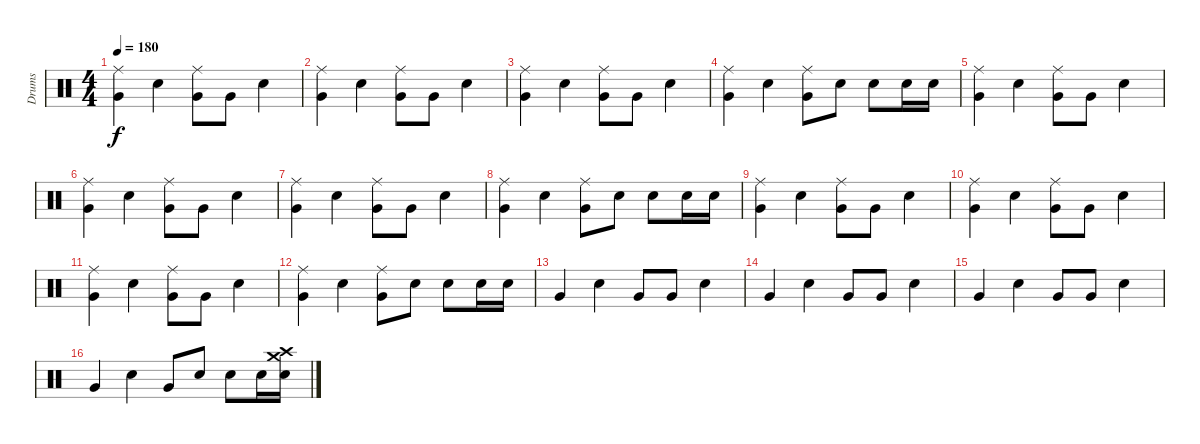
\track ("Drums" "Drums") {instrument percussion}
\staff {score}
\articulation defaults
\ts (4 4)
\tempo 180
\clef neutral
\ks c
("Very Low Tom (hit)" "Ride (middle)").4{dy f} "Electric Snare (hit)".4 ("Very Low Tom (hit)" "Ride (middle)").8 "Very Low Tom (hit)".8 "Electric Snare (hit)".4 |
("Very Low Tom (hit)" "Ride (middle)").4 "Electric Snare (hit)".4 ("Very Low Tom (hit)" "Ride (middle)").8 "Very Low Tom (hit)".8 "Electric Snare (hit)".4 |
("Very Low Tom (hit)" "Ride (middle)").4 "Electric Snare (hit)".4 ("Very Low Tom (hit)" "Ride (middle)").8 "Very Low Tom (hit)".8 "Electric Snare (hit)".4 |
("Very Low Tom (hit)" "Ride (middle)").4 "Electric Snare (hit)".4 ("Very Low Tom (hit)" "Ride (middle)").8 "Electric Snare (hit)".8 "Electric Snare (hit)".8 "Electric Snare (hit)".16 "Electric Snare (hit)".16 |
("Very Low Tom (hit)" "Ride (middle)").4 "Electric Snare (hit)".4 ("Very Low Tom (hit)" "Ride (middle)").8 "Very Low Tom (hit)".8 "Electric Snare (hit)".4 |
("Very Low Tom (hit)" "Ride (middle)").4 "Electric Snare (hit)".4 ("Very Low Tom (hit)" "Ride (middle)").8 "Very Low Tom (hit)".8 "Electric Snare (hit)".4 |
("Very Low Tom (hit)" "Ride (middle)").4 "Electric Snare (hit)".4 ("Very Low Tom (hit)" "Ride (middle)").8 "Very Low Tom (hit)".8 "Electric Snare (hit)".4 |
("Very Low Tom (hit)" "Ride (middle)").4 "Electric Snare (hit)".4 ("Very Low Tom (hit)" "Ride (middle)").8 "Electric Snare (hit)".8 "Electric Snare (hit)".8 "Electric Snare (hit)".16 "Electric Snare (hit)".16 |
("Very Low Tom (hit)" "Ride (middle)").4 "Electric Snare (hit)".4 ("Very Low Tom (hit)" "Ride (middle)").8 "Very Low Tom (hit)".8 "Electric Snare (hit)".4 |
("Very Low Tom (hit)" "Ride (middle)").4 "Electric Snare (hit)".4 ("Very Low Tom (hit)" "Ride (middle)").8 "Very Low Tom (hit)".8 "Electric Snare (hit)".4 |
("Very Low Tom (hit)" "Ride (middle)").4 "Electric Snare (hit)".4 ("Very Low Tom (hit)" "Ride (middle)").8 "Very Low Tom (hit)".8 "Electric Snare (hit)".4 |
("Very Low Tom (hit)" "Ride (middle)").4 "Electric Snare (hit)".4 ("Very Low Tom (hit)" "Ride (middle)").8 "Electric Snare (hit)".8 "Electric Snare (hit)".8 "Electric Snare (hit)".16 "Electric Snare (hit)".16 |
"Very Low Tom (hit)".4 "Electric Snare (hit)".4 "Very Low Tom (hit)".8 "Very Low Tom (hit)".8 "Electric Snare (hit)".4 |
"Very Low Tom (hit)".4 "Electric Snare (hit)".4 "Very Low Tom (hit)".8 "Very Low Tom (hit)".8 "Electric Snare (hit)".4 |
"Very Low Tom (hit)".4 "Electric Snare (hit)".4 "Very Low Tom (hit)".8 "Very Low Tom (hit)".8 "Electric Snare (hit)".4 |
"Very Low Tom (hit)".4 "Electric Snare (hit)".4 "Very Low Tom (hit)".8 "Electric Snare (hit)".8 "Electric Snare (hit)".8 "Electric Snare (hit)".16 ("Electric Snare (hit)" "Crash high (hit)" "Crash medium (hit)").16
